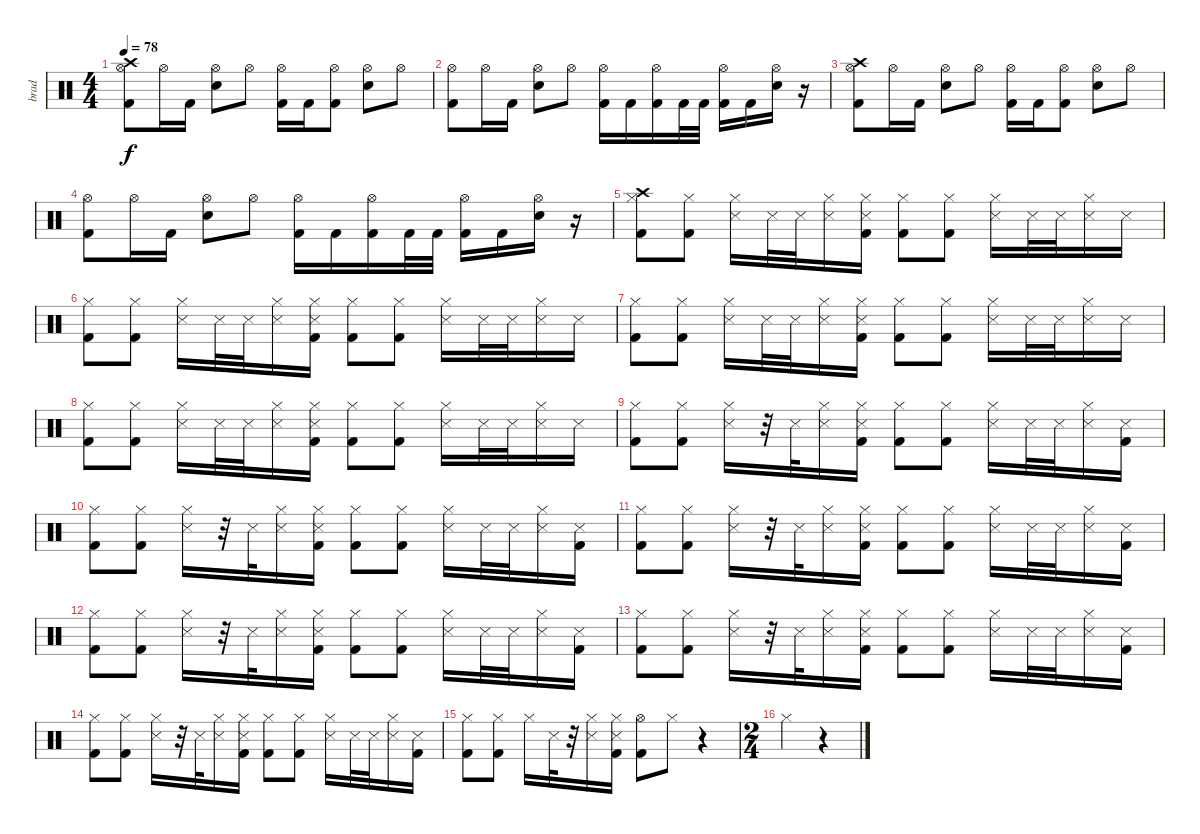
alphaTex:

\track ("brad" "brad") {instrument percussion}
\staff {score}
\articulation defaults
\ts (4 4)
\tempo 78
\clef neutral
\ks c
("Crash high (hit)" "Hi-Hat (open)" "Kick (hit) 2").8{dy f} "Hi-Hat (open)".16 "Kick (hit) 2".16 ("Hi-Hat (open)" "Electric Snare (hit)").8 "Hi-Hat (open)".8 ("Hi-Hat (open)" "Kick (hit) 2").16 "Kick (hit) 2".16 ("Hi-Hat (open)" "Kick (hit) 2").8 ("Hi-Hat (open)" "Electric Snare (hit)").8 "Hi-Hat (open)".8 |
("Hi-Hat (open)" "Kick (hit) 2").8 "Hi-Hat (open)".16 "Kick (hit) 2".16 ("Hi-Hat (open)" "Electric Snare (hit)").8 "Hi-Hat (open)".8 ("Hi-Hat (open)" "Kick (hit) 2").16 "Kick (hit) 2".16 ("Hi-Hat (open)" "Kick (hit) 2").16 "Kick (hit) 2".32 "Kick (hit) 2".32 ("Hi-Hat (open)" "Kick (hit) 2").16 "Kick (hit) 2".16 ("Hi-Hat (open)" "Electric Snare (hit)").16 r.16 |
("Crash high (hit)" "Hi-Hat (open)" "Kick (hit) 2").8 "Hi-Hat (open)".16 "Kick (hit) 2".16 ("Hi-Hat (open)" "Electric Snare (hit)").8 "Hi-Hat (open)".8 ("Hi-Hat (open)" "Kick (hit) 2").16 "Kick (hit) 2".16 ("Hi-Hat (open)" "Kick (hit) 2").8 ("Hi-Hat (open)" "Electric Snare (hit)").8 "Hi-Hat (open)".8 |
("Hi-Hat (open)" "Kick (hit) 2").8 "Hi-Hat (open)".16 "Kick (hit) 2".16 ("Hi-Hat (open)" "Electric Snare (hit)").8 "Hi-Hat (open)".8 ("Hi-Hat (open)" "Kick (hit) 2").16 "Kick (hit) 2".16 ("Hi-Hat (open)" "Kick (hit) 2").16 "Kick (hit) 2".32 "Kick (hit) 2".32 ("Hi-Hat (open)" "Kick (hit) 2").16 "Kick (hit) 2".16 ("Hi-Hat (open)" "Electric Snare (hit)").16 r.16 |
("Crash high (hit)" "Hi-Hat (closed)" "Kick (hit) 2").8 ("Hi-Hat (closed)" "Kick (hit) 2").8 ("Hi-Hat (closed)" "Snare (side stick) 3").16 "Snare (side stick) 3".32 "Snare (side stick) 3".32 ("Hi-Hat (closed)" "Snare (side stick) 3").16 ("Hi-Hat (closed)" "Snare (side stick) 3" "Kick (hit) 2").16 ("Hi-Hat (closed)" "Kick (hit) 2").8 ("Hi-Hat (closed)" "Kick (hit) 2").8 ("Hi-Hat (closed)" "Snare (side stick) 3").16 "Snare (side stick) 3".32 "Snare (side stick) 3".32 ("Hi-Hat (closed)" "Snare (side stick) 3").16 "Snare (side stick) 3".16 |
("Hi-Hat (closed)" "Kick (hit) 2").8 ("Hi-Hat (closed)" "Kick (hit) 2").8 ("Hi-Hat (closed)" "Snare (side stick) 3").16 "Snare (side stick) 3".32 "Snare (side stick) 3".32 ("Hi-Hat (closed)" "Snare (side stick) 3").16 ("Hi-Hat (closed)" "Snare (side stick) 3" "Kick (hit) 2").16 ("Hi-Hat (closed)" "Kick (hit) 2").8 ("Hi-Hat (closed)" "Kick (hit) 2").8 ("Hi-Hat (closed)" "Snare (side stick) 3").16 "Snare (side stick) 3".32 "Snare (side stick) 3".32 ("Hi-Hat (closed)" "Snare (side stick) 3").16 "Snare (side stick) 3".16 |
("Hi-Hat (closed)" "Kick (hit) 2").8 ("Hi-Hat (closed)" "Kick (hit) 2").8 ("Hi-Hat (closed)" "Snare (side stick) 3").16 "Snare (side stick) 3".32 "Snare (side stick) 3".32 ("Hi-Hat (closed)" "Snare (side stick) 3").16 ("Hi-Hat (closed)" "Snare (side stick) 3" "Kick (hit) 2").16 ("Hi-Hat (closed)" "Kick (hit) 2").8 ("Hi-Hat (closed)" "Kick (hit) 2").8 ("Hi-Hat (closed)" "Snare (side stick) 3").16 "Snare (side stick) 3".32 "Snare (side stick) 3".32 ("Hi-Hat (closed)" "Snare (side stick) 3").16 "Snare (side stick) 3".16 |
("Hi-Hat (closed)" "Kick (hit) 2").8 ("Hi-Hat (closed)" "Kick (hit) 2").8 ("Hi-Hat (closed)" "Snare (side stick) 3").16 "Snare (side stick) 3".32 "Snare (side stick) 3".32 ("Hi-Hat (closed)" "Snare (side stick) 3").16 ("Hi-Hat (closed)" "Snare (side stick) 3" "Kick (hit) 2").16 ("Hi-Hat (closed)" "Kick (hit) 2").8 ("Hi-Hat (closed)" "Kick (hit) 2").8 ("Hi-Hat (closed)" "Snare (side stick) 3").16 "Snare (side stick) 3".32 "Snare (side stick) 3".32 ("Hi-Hat (closed)" "Snare (side stick) 3").16 "Snare (side stick) 3".16 |
("Hi-Hat (closed)" "Kick (hit) 2").8 ("Hi-Hat (closed)" "Kick (hit) 2").8 ("Hi-Hat (closed)" "Snare (side stick) 3").16 r.32 "Snare (side stick) 3".32 ("Hi-Hat (closed)" "Snare (side stick) 3").16 ("Hi-Hat (closed)" "Snare (side stick) 3" "Kick (hit) 2").16 ("Hi-Hat (closed)" "Kick (hit) 2").8 ("Hi-Hat (closed)" "Kick (hit) 2").8 ("Hi-Hat (closed)" "Snare (side stick) 3").16 "Snare (side stick) 3".32 "Snare (side stick) 3".32 ("Hi-Hat (closed)" "Snare (side stick) 3").16 ("Snare (side stick) 3" "Kick (hit) 2").16 |
("Hi-Hat (closed)" "Kick (hit) 2").8 ("Hi-Hat (closed)" "Kick (hit) 2").8 ("Hi-Hat (closed)" "Snare (side stick) 3").16 r.32 "Snare (side stick) 3".32 ("Hi-Hat (closed)" "Snare (side stick) 3").16 ("Hi-Hat (closed)" "Snare (side stick) 3" "Kick (hit) 2").16 ("Hi-Hat (closed)" "Kick (hit) 2").8 ("Hi-Hat (closed)" "Kick (hit) 2").8 ("Hi-Hat (closed)" "Snare (side stick) 3").16 "Snare (side stick) 3".32 "Snare (side stick) 3".32 ("Hi-Hat (closed)" "Snare (side stick) 3").16 ("Snare (side stick) 3" "Kick (hit) 2").16 |
("Hi-Hat (closed)" "Kick (hit) 2").8 ("Hi-Hat (closed)" "Kick (hit) 2").8 ("Hi-Hat (closed)" "Snare (side stick) 3").16 r.32 "Snare (side stick) 3".32 ("Hi-Hat (closed)" "Snare (side stick) 3").16 ("Hi-Hat (closed)" "Snare (side stick) 3" "Kick (hit) 2").16 ("Hi-Hat (closed)" "Kick (hit) 2").8 ("Hi-Hat (closed)" "Kick (hit) 2").8 ("Hi-Hat (closed)" "Snare (side stick) 3").16 "Snare (side stick) 3".32 "Snare (side stick) 3".32 ("Hi-Hat (closed)" "Snare (side stick) 3").16 ("Snare (side stick) 3" "Kick (hit) 2").16 |
("Hi-Hat (closed)" "Kick (hit) 2").8 ("Hi-Hat (closed)" "Kick (hit) 2").8 ("Hi-Hat (closed)" "Snare (side stick) 3").16 r.32 "Snare (side stick) 3".32 ("Hi-Hat (closed)" "Snare (side stick) 3").16 ("Hi-Hat (closed)" "Snare (side stick) 3" "Kick (hit) 2").16 ("Hi-Hat (closed)" "Kick (hit) 2").8 ("Hi-Hat (closed)" "Kick (hit) 2").8 ("Hi-Hat (closed)" "Snare (side stick) 3").16 "Snare (side stick) 3".32 "Snare (side stick) 3".32 ("Hi-Hat (closed)" "Snare (side stick) 3").16 ("Snare (side stick) 3" "Kick (hit) 2").16 |
("Hi-Hat (closed)" "Kick (hit) 2").8 ("Hi-Hat (closed)" "Kick (hit) 2").8 ("Hi-Hat (closed)" "Snare (side stick) 3").16 r.32 "Snare (side stick) 3".32 ("Hi-Hat (closed)" "Snare (side stick) 3").16 ("Hi-Hat (closed)" "Snare (side stick) 3" "Kick (hit) 2").16 ("Hi-Hat (closed)" "Kick (hit) 2").8 ("Hi-Hat (closed)" "Kick (hit) 2").8 ("Hi-Hat (closed)" "Snare (side stick) 3").16 "Snare (side stick) 3".32 "Snare (side stick) 3".32 ("Hi-Hat (closed)" "Snare (side stick) 3").16 ("Snare (side stick) 3" "Kick (hit) 2").16 |
("Hi-Hat (closed)" "Kick (hit) 2").8 ("Hi-Hat (closed)" "Kick (hit) 2").8 ("Hi-Hat (closed)" "Snare (side stick) 3").16 r.32 "Snare (side stick) 3".32 ("Hi-Hat (closed)" "Snare (side stick) 3").16 ("Hi-Hat (closed)" "Snare (side stick) 3" "Kick (hit) 2").16 ("Hi-Hat (closed)" "Kick (hit) 2").8 ("Hi-Hat (closed)" "Kick (hit) 2").8 ("Hi-Hat (closed)" "Snare (side stick) 3").16 "Snare (side stick) 3".32 "Snare (side stick) 3".32 ("Hi-Hat (closed)" "Snare (side stick) 3").16 ("Snare (side stick) 3" "Kick (hit) 2").16 |
("Hi-Hat (closed)" "Kick (hit) 2").8 ("Hi-Hat (closed)" "Kick (hit) 2").8 "Hi-Hat (closed)".16 "Snare (side stick) 3".32 r.32 ("Hi-Hat (closed)" "Snare (side stick) 3").16 ("Hi-Hat (closed)" "Snare (side stick) 3" "Kick (hit) 2").16 ("Hi-Hat (open)" "Kick (hit) 2").8 "Hi-Hat (closed)".8 r.4 |
\ts (2 4)
"Hi-Hat (closed)".4 r.4
